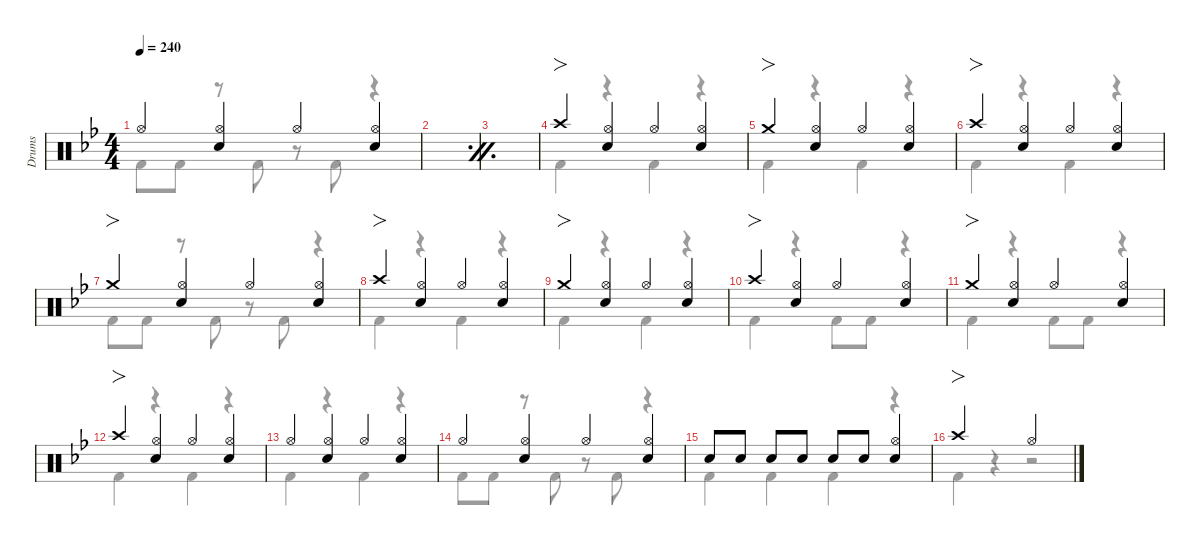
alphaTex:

\defaultSystemsLayout 4
\hideDynamics
\bracketExtendMode nobrackets
\otherSystemsTrackNameOrientation horizontal
\track ("Drums" "Drums") {defaultSystemsLayout 4 instrument percussion}
\staff {score}
\articulation defaults
\voice
\ts (4 4)
\tempo 240
\clef neutral
\scale
0.976526
\ks bb "Hi-Hat (open)"{acc forcenatural}.4{dy f beam Up}
("Hi-Hat (open)"{acc forcenatural} "Snare (hit) 2"{acc forcenatural}).4{beam Up} "Hi-Hat (open)"{acc forcenatural}.4{beam Up} ("Hi-Hat (open)"{acc forcenatural} "Snare (hit) 2"{acc forcenatural}).4{beam Up} |
\simile firstofdouble
\scale
0.976526 |
\simile secondofdouble
\scale
0.976526 |
\simile none
\scale
1.07042 "Crash high (hit)"{acc forcenatural}.4{fo beam Up} ("Hi-Hat (open)"{acc forcenatural} "Snare (hit) 2"{acc forcenatural}).4{beam Up} "Hi-Hat (open)"{acc forcenatural}.4{beam Up} ("Hi-Hat (open)"{acc forcenatural} "Snare (hit) 2"{acc forcenatural}).4{beam Up} |
\scale
0.976526 "Crash medium (hit)"{acc forcenatural}.4{fo beam Up} ("Hi-Hat (open)"{acc forcenatural} "Snare (hit) 2"{acc forcenatural}).4{beam Up} "Hi-Hat (open)"{acc forcenatural}.4{beam Up} ("Hi-Hat (open)"{acc forcenatural} "Snare (hit) 2"{acc forcenatural}).4{beam Up} |
\scale
0.976526 "Crash high (hit)"{acc forcenatural}.4{fo beam Up} ("Hi-Hat (open)"{acc forcenatural} "Snare (hit) 2"{acc forcenatural}).4{beam Up} "Hi-Hat (open)"{acc forcenatural}.4{beam Up} ("Hi-Hat (open)"{acc forcenatural} "Snare (hit) 2"{acc forcenatural}).4{beam Up} |
\scale
0.976526 "Crash medium (hit)"{acc forcenatural}.4{fo beam Up} ("Hi-Hat (open)"{acc forcenatural} "Snare (hit) 2"{acc forcenatural}).4{beam Up} "Hi-Hat (open)"{acc forcenatural}.4{beam Up} ("Hi-Hat (open)"{acc forcenatural} "Snare (hit) 2"{acc forcenatural}).4{beam Up} |
\scale
1.07042 "Crash high (hit)"{acc forcenatural}.4{fo beam Up} ("Hi-Hat (open)"{acc forcenatural} "Snare (hit) 2"{acc forcenatural}).4{beam Up} "Hi-Hat (open)"{acc forcenatural}.4{beam Up} ("Hi-Hat (open)"{acc forcenatural} "Snare (hit) 2"{acc forcenatural}).4{beam Up} |
\scale
0.976526 "Crash medium (hit)"{acc forcenatural}.4{fo beam Up} ("Hi-Hat (open)"{acc forcenatural} "Snare (hit) 2"{acc forcenatural}).4{beam Up} "Hi-Hat (open)"{acc forcenatural}.4{beam Up} ("Hi-Hat (open)"{acc forcenatural} "Snare (hit) 2"{acc forcenatural}).4{beam Up} |
\scale
0.976526 "Crash high (hit)"{acc forcenatural}.4{fo beam Up} ("Hi-Hat (open)"{acc forcenatural} "Snare (hit) 2"{acc forcenatural}).4{beam Up} "Hi-Hat (open)"{acc forcenatural}.4{beam Up} ("Hi-Hat (open)"{acc forcenatural} "Snare (hit) 2"{acc forcenatural}).4{beam Up} |
\scale
0.976526 "Crash medium (hit)"{acc forcenatural}.4{fo beam Up} ("Hi-Hat (open)"{acc forcenatural} "Snare (hit) 2"{acc forcenatural}).4{beam Up} "Hi-Hat (open)"{acc forcenatural}.4{beam Up} ("Hi-Hat (open)"{acc forcenatural} "Snare (hit) 2"{acc forcenatural}).4{beam Up} |
\scale
1.07042 "Crash high (hit)"{acc forcenatural}.4{fo beam Up} ("Hi-Hat (open)"{acc forcenatural} "Snare (hit) 2"{acc forcenatural}).4{beam Up} "Hi-Hat (open)"{acc forcenatural}.4{beam Up} ("Hi-Hat (open)"{acc forcenatural} "Snare (hit) 2"{acc forcenatural}).4{beam Up} |
\scale
0.976526 "Hi-Hat (open)"{acc forcenatural}.4{beam Up} ("Hi-Hat (open)"{acc forcenatural} "Snare (hit) 2"{acc forcenatural}).4{beam Up} "Hi-Hat (open)"{acc forcenatural}.4{beam Up} ("Hi-Hat (open)"{acc forcenatural} "Snare (hit) 2"{acc forcenatural}).4{beam Up} |
\scale
0.976526 "Hi-Hat (open)"{acc forcenatural}.4{beam Up} ("Hi-Hat (open)"{acc forcenatural} "Snare (hit) 2"{acc forcenatural}).4{beam Up} "Hi-Hat (open)"{acc forcenatural}.4{beam Up} ("Hi-Hat (open)"{acc forcenatural} "Snare (hit) 2"{acc forcenatural}).4{beam Up} |
\scale
0.976526 "Snare (hit) 2"{acc forcenatural}.8{beam Up} "Snare (hit) 2"{acc forcenatural}.8{dy mf beam Up} "Snare (hit) 2"{acc forcenatural}.8{dy f beam Up} "Snare (hit) 2"{acc forcenatural}.8{dy mf beam Up} "Snare (hit) 2"{acc forcenatural}.8{dy f beam Up} "Snare (hit) 2"{acc forcenatural}.8{dy mf beam Up} ("Snare (hit) 2"{acc forcenatural} "Hi-Hat (open)"{acc forcenatural}).4{dy f beam Up} |
\scale
1.066 "Crash high (hit)"{acc forcenatural}.2{fo beam Up} "Hi-Hat (open)"{acc forcenatural}.2{beam Up}
\voice
\clef neutral
\ottava regular
\simile none
\scale
0.976526
\ks bb "Kick (hit) 2"{acc forcenatural}.8{dy f beam Down} "Kick (hit) 2"{acc forcenatural}.8{beam Down}
r.8{beam Down} "Kick (hit) 2"{acc forcenatural}.8{beam Down} r.8{beam Down} "Kick (hit) 2"{acc forcenatural}.8{beam Down} r.4{beam Down} |
\simile firstofdouble
\scale
0.976526 |
\simile secondofdouble
\scale
0.976526 |
\simile none
\scale
1.07042 "Kick (hit) 2"{acc forcenatural}.4{beam Down} r.4{beam Down} "Kick (hit) 2"{acc forcenatural}.4{beam Down} r.4{beam Down} |
\scale
0.976526 "Kick (hit) 2"{acc forcenatural}.4{beam Down} r.4{beam Down} "Kick (hit) 2"{acc forcenatural}.4{beam Down} r.4{beam Down} |
\scale
0.976526 "Kick (hit) 2"{acc forcenatural}.4{beam Down} r.4{beam Down} "Kick (hit) 2"{acc forcenatural}.4{beam Down} r.4{beam Down} |
\scale
0.976526 "Kick (hit) 2"{acc forcenatural}.8{beam Down} "Kick (hit) 2"{acc forcenatural}.8{beam Down} r.8{beam Down} "Kick (hit) 2"{acc forcenatural}.8{beam Down} r.8{beam Down} "Kick (hit) 2"{acc forcenatural}.8{beam Down} r.4{beam Down} |
\scale
1.07042 "Kick (hit) 2"{acc forcenatural}.4{beam Down} r.4{beam Down} "Kick (hit) 2"{acc forcenatural}.4{beam Down} r.4{beam Down} |
\scale
0.976526 "Kick (hit) 2"{acc forcenatural}.4{beam Down} r.4{beam Down} "Kick (hit) 2"{acc forcenatural}.4{beam Down} r.4{beam Down} |
\scale
0.976526 "Kick (hit) 2"{acc forcenatural}.4{beam Down} r.4{beam Down} "Kick (hit) 2"{acc forcenatural}.8{beam Down} "Kick (hit) 2"{acc forcenatural}.8{beam Down} r.4{beam Down} |
\scale
0.976526 "Kick (hit) 2"{acc forcenatural}.4{beam Down} r.4{beam Down} "Kick (hit) 2"{acc forcenatural}.8{beam Down} "Kick (hit) 2"{acc forcenatural}.8{beam Down} r.4{beam Down} |
\scale
1.07042 "Kick (hit) 2"{acc forcenatural}.4{beam Down} r.4{beam Down} "Kick (hit) 2"{acc forcenatural}.4{beam Down} r.4{beam Down} |
\scale
0.976526 "Kick (hit) 2"{acc forcenatural}.4{beam Down} r.4{beam Down} "Kick (hit) 2"{acc forcenatural}.4{beam Down} r.4{beam Down} |
\scale
0.976526 "Kick (hit) 2"{acc forcenatural}.8{beam Down} "Kick (hit) 2"{acc forcenatural}.8{beam Down} r.8{beam Down} "Kick (hit) 2"{acc forcenatural}.8{beam Down} r.8{beam Down} "Kick (hit) 2"{acc forcenatural}.8{beam Down} r.4{beam Down} |
\scale
0.976526 "Kick (hit) 2"{acc forcenatural}.4{beam Down} "Kick (hit) 2"{acc forcenatural}.4{beam Down} "Kick (hit) 2"{acc forcenatural}.4{beam Down} r.4{beam Down} |
\scale
1.066 "Kick (hit) 2"{acc forcenatural}.4{beam Down} r.4{beam Down} r.2{beam Down}
